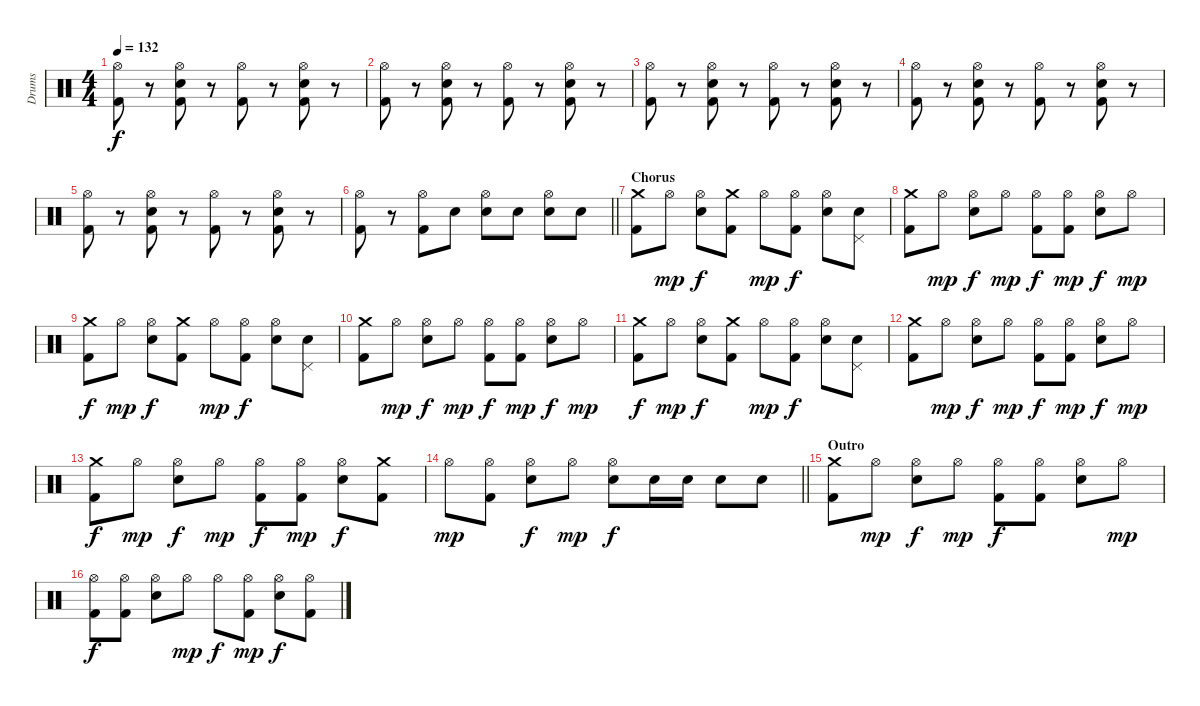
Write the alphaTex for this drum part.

\track ("Drums" "Drums") {instrument percussion}
\staff {score}
\articulation defaults
\ts (4 4)
\tempo 132
\clef neutral
\ks c
("Hi-Hat (open)" "Kick (hit) 2").8{dy f} r.8 ("Hi-Hat (open)" "Snare (hit) 2" "Kick (hit) 2").8 r.8 ("Hi-Hat (open)" "Kick (hit) 2").8 r.8 ("Hi-Hat (open)" "Snare (hit) 2" "Kick (hit) 2").8 r.8 |
("Hi-Hat (open)" "Kick (hit) 2").8 r.8 ("Hi-Hat (open)" "Snare (hit) 2" "Kick (hit) 2").8 r.8 ("Hi-Hat (open)" "Kick (hit) 2").8 r.8 ("Hi-Hat (open)" "Snare (hit) 2" "Kick (hit) 2").8 r.8 |
("Hi-Hat (open)" "Kick (hit) 2").8 r.8 ("Hi-Hat (open)" "Snare (hit) 2" "Kick (hit) 2").8 r.8 ("Hi-Hat (open)" "Kick (hit) 2").8 r.8 ("Hi-Hat (open)" "Snare (hit) 2" "Kick (hit) 2").8 r.8 |
("Hi-Hat (open)" "Kick (hit) 2").8 r.8 ("Hi-Hat (open)" "Snare (hit) 2" "Kick (hit) 2").8 r.8 ("Hi-Hat (open)" "Kick (hit) 2").8 r.8 ("Hi-Hat (open)" "Snare (hit) 2" "Kick (hit) 2").8 r.8 |
("Hi-Hat (open)" "Kick (hit) 2").8 r.8 ("Hi-Hat (open)" "Snare (hit) 2" "Kick (hit) 2").8 r.8 ("Hi-Hat (open)" "Kick (hit) 2").8 r.8 ("Hi-Hat (open)" "Snare (hit) 2" "Kick (hit) 2").8 r.8 |
\barLineRight lightlight
("Hi-Hat (open)" "Kick (hit) 2").8 r.8 ("Hi-Hat (open)" "Kick (hit) 2").8 "Snare (hit) 2".8 ("Hi-Hat (open)" "Snare (hit) 2").8 "Snare (hit) 2".8 ("Hi-Hat (open)" "Snare (hit) 2").8 "Snare (hit) 2".8 |
\section ("" "Chorus")
("Crash medium (hit)" "Kick (hit) 2").8 "Hi-Hat (open)".8{dy mp} ("Hi-Hat (open)" "Snare (hit) 2").8{dy f} ("Crash medium (hit)" "Kick (hit) 2").8 "Hi-Hat (open)".8{dy mp} ("Hi-Hat (open)" "Kick (hit) 2").8{dy f} ("Hi-Hat (open)" "Snare (hit) 2").8 ("Pedal Hi-Hat (hit)" "Snare (hit) 2").8 |
("Crash medium (hit)" "Kick (hit) 2").8 "Hi-Hat (open)".8{dy mp} ("Hi-Hat (open)" "Snare (hit) 2").8{dy f} "Hi-Hat (open)".8{dy mp} ("Hi-Hat (open)" "Kick (hit) 2").8{dy f} ("Hi-Hat (open)" "Kick (hit) 2").8{dy mp} ("Hi-Hat (open)" "Snare (hit) 2").8{dy f} "Hi-Hat (open)".8{dy mp} |
("Crash medium (hit)" "Kick (hit) 2").8{dy f} "Hi-Hat (open)".8{dy mp} ("Hi-Hat (open)" "Snare (hit) 2").8{dy f} ("Crash medium (hit)" "Kick (hit) 2").8 "Hi-Hat (open)".8{dy mp} ("Hi-Hat (open)" "Kick (hit) 2").8{dy f} ("Hi-Hat (open)" "Snare (hit) 2").8 ("Pedal Hi-Hat (hit)" "Snare (hit) 2").8 |
("Crash medium (hit)" "Kick (hit) 2").8 "Hi-Hat (open)".8{dy mp} ("Hi-Hat (open)" "Snare (hit) 2").8{dy f} "Hi-Hat (open)".8{dy mp} ("Hi-Hat (open)" "Kick (hit) 2").8{dy f} ("Hi-Hat (open)" "Kick (hit) 2").8{dy mp} ("Hi-Hat (open)" "Snare (hit) 2").8{dy f} "Hi-Hat (open)".8{dy mp} |
("Crash medium (hit)" "Kick (hit) 2").8{dy f} "Hi-Hat (open)".8{dy mp} ("Hi-Hat (open)" "Snare (hit) 2").8{dy f} ("Crash medium (hit)" "Kick (hit) 2").8 "Hi-Hat (open)".8{dy mp} ("Hi-Hat (open)" "Kick (hit) 2").8{dy f} ("Hi-Hat (open)" "Snare (hit) 2").8 ("Pedal Hi-Hat (hit)" "Snare (hit) 2").8 |
("Crash medium (hit)" "Kick (hit) 2").8 "Hi-Hat (open)".8{dy mp} ("Hi-Hat (open)" "Snare (hit) 2").8{dy f} "Hi-Hat (open)".8{dy mp} ("Hi-Hat (open)" "Kick (hit) 2").8{dy f} ("Hi-Hat (open)" "Kick (hit) 2").8{dy mp} ("Hi-Hat (open)" "Snare (hit) 2").8{dy f} "Hi-Hat (open)".8{dy mp} |
("Crash medium (hit)" "Kick (hit) 2").8{dy f} "Hi-Hat (open)".8{dy mp} ("Hi-Hat (open)" "Snare (hit) 2").8{dy f} "Hi-Hat (open)".8{dy mp} ("Hi-Hat (open)" "Kick (hit) 2").8{dy f} ("Hi-Hat (open)" "Kick (hit) 2").8{dy mp} ("Hi-Hat (open)" "Snare (hit) 2").8{dy f} ("Crash medium (hit)" "Kick (hit) 2").8 |
\barLineRight lightlight "Hi-Hat (open)".8{dy mp}
("Hi-Hat (open)" "Kick (hit) 2").8 ("Hi-Hat (open)" "Snare (hit) 2").8{dy f} "Hi-Hat (open)".8{dy mp} ("Hi-Hat (open)" "Snare (hit) 2").8{dy f} "Snare (hit) 2".16 "Snare (hit) 2".16 "Snare (hit) 2".8 "Snare (hit) 2".8 |
\section ("" "Outro")
("Crash medium (hit)" "Kick (hit) 2").8 "Hi-Hat (open)".8{dy mp} ("Hi-Hat (open)" "Snare (hit) 2").8{dy f} "Hi-Hat (open)".8{dy mp} ("Hi-Hat (open)" "Kick (hit) 2").8{dy f} ("Hi-Hat (open)" "Kick (hit) 2").8 ("Hi-Hat (open)" "Snare (hit) 2").8 "Hi-Hat (open)".8{dy mp} |
("Hi-Hat (open)" "Kick (hit) 2").8{dy f} ("Hi-Hat (open)" "Kick (hit) 2").8 ("Hi-Hat (open)" "Snare (hit) 2").8 "Hi-Hat (open)".8{dy mp} "Hi-Hat (open)".8{dy f} ("Hi-Hat (open)" "Kick (hit) 2").8{dy mp} ("Hi-Hat (open)" "Snare (hit) 2").8{dy f} ("Hi-Hat (open)" "Kick (hit) 2").8
